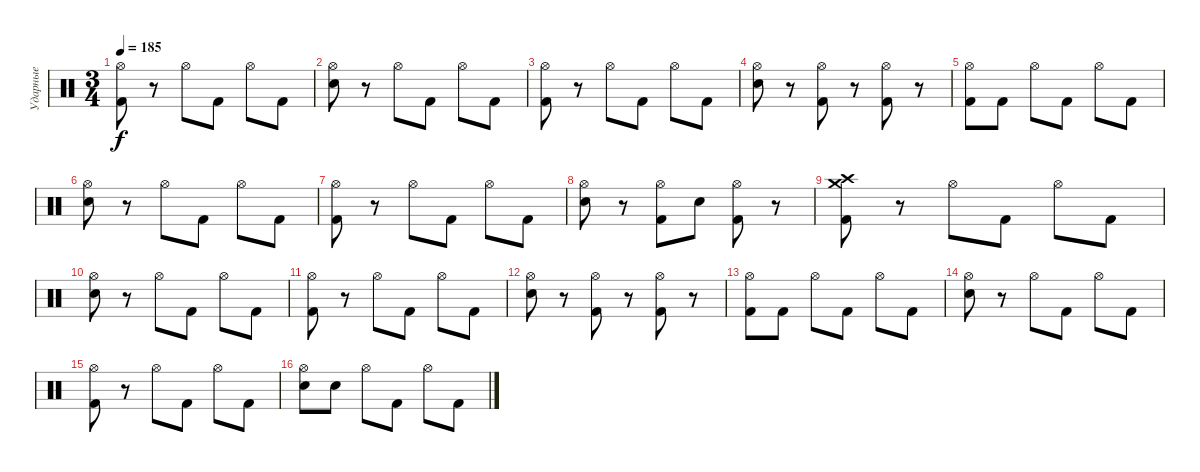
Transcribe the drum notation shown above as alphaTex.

\track ("Ударные" "Ударные") {instrument percussion}
\staff {score}
\articulation defaults
\ts (3 4)
\tempo 185
\clef neutral
\ks c
("Hi-Hat (open)" "Kick (hit) 2").8{dy f} r.8 "Hi-Hat (open)".8 "Kick (hit) 2".8 "Hi-Hat (open)".8 "Kick (hit) 2".8 |
("Hi-Hat (open)" "Snare (hit) 2").8 r.8 "Hi-Hat (open)".8 "Kick (hit) 2".8 "Hi-Hat (open)".8 "Kick (hit) 2".8 |
("Hi-Hat (open)" "Kick (hit) 2").8 r.8 "Hi-Hat (open)".8 "Kick (hit) 2".8 "Hi-Hat (open)".8 "Kick (hit) 2".8 |
("Hi-Hat (open)" "Snare (hit) 2").8 r.8 ("Hi-Hat (open)" "Kick (hit) 2").8 r.8 ("Hi-Hat (open)" "Kick (hit) 2").8 r.8 |
("Hi-Hat (open)" "Kick (hit) 2").8 "Kick (hit) 2".8 "Hi-Hat (open)".8 "Kick (hit) 2".8 "Hi-Hat (open)".8 "Kick (hit) 2".8 |
("Hi-Hat (open)" "Snare (hit) 2").8 r.8 "Hi-Hat (open)".8 "Kick (hit) 2".8 "Hi-Hat (open)".8 "Kick (hit) 2".8 |
("Hi-Hat (open)" "Kick (hit) 2").8 r.8 "Hi-Hat (open)".8 "Kick (hit) 2".8 "Hi-Hat (open)".8 "Kick (hit) 2".8 |
("Hi-Hat (open)" "Snare (hit) 2").8 r.8 ("Hi-Hat (open)" "Kick (hit) 2").8 "Snare (hit) 2".8 ("Hi-Hat (open)" "Kick (hit) 2").8 r.8 |
("Crash medium (hit)" "Crash high (hit)" "Kick (hit) 2").8 r.8 "Hi-Hat (open)".8 "Kick (hit) 2".8 "Hi-Hat (open)".8 "Kick (hit) 2".8 |
("Hi-Hat (open)" "Snare (hit) 2").8 r.8 "Hi-Hat (open)".8 "Kick (hit) 2".8 "Hi-Hat (open)".8 "Kick (hit) 2".8 |
("Hi-Hat (open)" "Kick (hit) 2").8 r.8 "Hi-Hat (open)".8 "Kick (hit) 2".8 "Hi-Hat (open)".8 "Kick (hit) 2".8 |
("Hi-Hat (open)" "Snare (hit) 2").8 r.8 ("Hi-Hat (open)" "Kick (hit) 2").8 r.8 ("Hi-Hat (open)" "Kick (hit) 2").8 r.8 |
("Hi-Hat (open)" "Kick (hit) 2").8 "Kick (hit) 2".8 "Hi-Hat (open)".8 "Kick (hit) 2".8 "Hi-Hat (open)".8 "Kick (hit) 2".8 |
("Hi-Hat (open)" "Snare (hit) 2").8 r.8 "Hi-Hat (open)".8 "Kick (hit) 2".8 "Hi-Hat (open)".8 "Kick (hit) 2".8 |
("Hi-Hat (open)" "Kick (hit) 2").8 r.8 "Hi-Hat (open)".8 "Kick (hit) 2".8 "Hi-Hat (open)".8 "Kick (hit) 2".8 |
("Hi-Hat (open)" "Snare (hit) 2").8 "Snare (hit) 2".8 "Hi-Hat (open)".8 "Kick (hit) 2".8 "Hi-Hat (open)".8 "Kick (hit) 2".8
